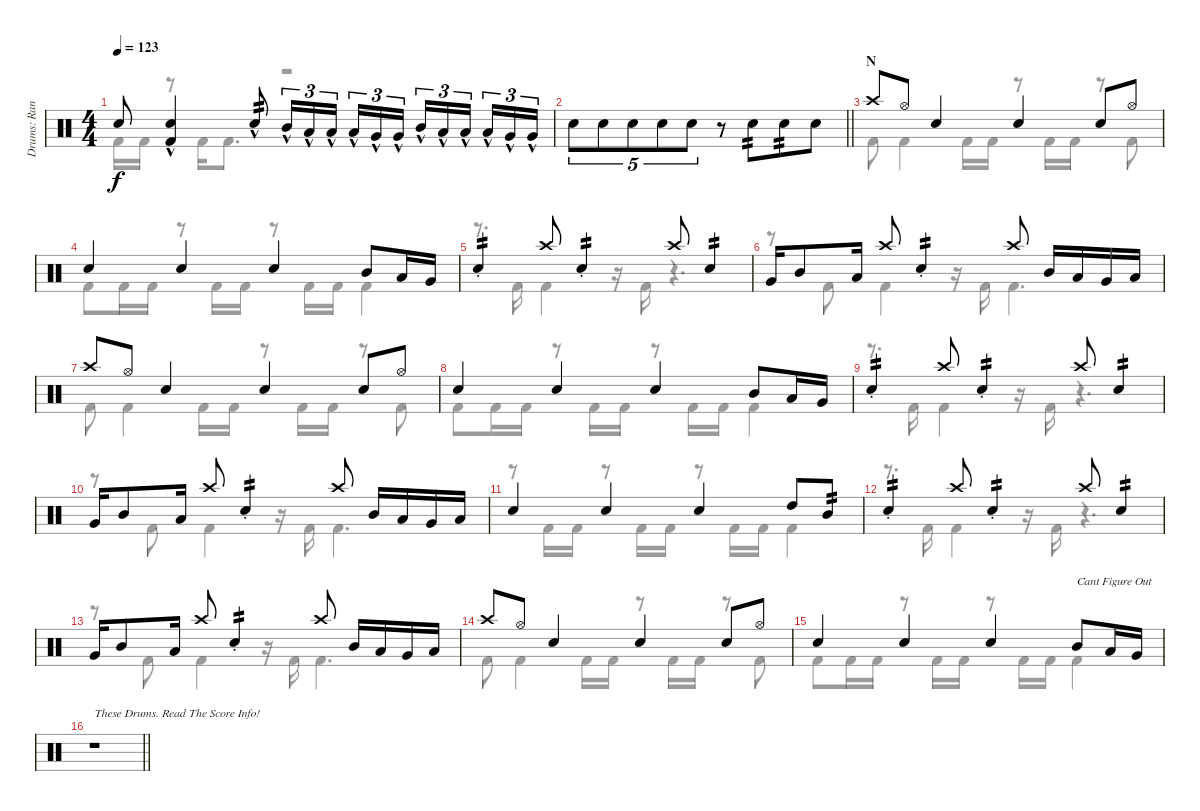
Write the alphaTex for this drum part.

\track ("Drums: Randy" "Drums: Ran") {instrument percussion}
\staff {score}
\articulation defaults
\voice
\ts (4 4)
\tempo 123
\clef neutral
\ks c "Snare (hit)"{t}.8{dy f}
("Snare (hit) 2"{hac} "Kick (hit) 2"{hac}).4 "Snare (hit) 2"{hac}.8{tp 2} "Mid Tom (hit)"{hac}.16{tu (3 2)} "Low Tom (hit)"{hac}.16{tu (3 2)} "Low Tom (hit)"{hac}.16{tu (3 2) beam splitsecondary} "Low Tom (hit)"{hac}.16{tu (3 2)} "Very Low Tom (hit)"{hac}.16{tu (3 2)} "Very Low Tom (hit)"{hac}.16{tu (3 2)} "Mid Tom (hit)"{hac}.16{tu (3 2)} "Low Tom (hit)"{hac}.16{tu (3 2)} "Low Tom (hit)"{hac}.16{tu (3 2) beam splitsecondary} "Low Tom (hit)"{hac}.16{tu (3 2)} "Very Low Tom (hit)"{hac}.16{tu (3 2)} "Very Low Tom (hit)"{hac}.16{tu (3 2)} |
\barLineRight lightlight "Snare (hit) 2".8{tu (5 4)} "Snare (hit) 2".8{tu (5 4)} "Snare (hit) 2".8{tu (5 4) beam merge} "Snare (hit) 2".8{tu (5 4)} "Snare (hit) 2".8{tu (5 4)}
r.8 "Snare (hit) 2".8{tp 2 beam merge} "Snare (hit) 2".8{tp 2} "Snare (hit) 2".8 |
\section ("" "N")
"Crash high (hit)".8 "Hi-Hat (open)".8 "Snare (hit) 2".4 "Snare (hit) 2".4 "Snare (hit) 2".8 "Hi-Hat (open)".8 |
"Snare (hit) 2".4 "Snare (hit) 2".4 "Snare (hit) 2".4 "Mid Tom (hit)".8 "Low Tom (hit)".16 "Very Low Tom (hit)".16 |
"Snare (hit) 2"{st}.4{tp 2} "Crash high (hit)".8 "Snare (hit) 2"{st}.4{tp 2} "Crash high (hit)".8 "Snare (hit) 2".4{tp 2} |
"Very Low Tom (hit)".16 "Mid Tom (hit)".8 "Low Tom (hit)".16 "Crash high (hit)".8 "Snare (hit) 2"{st}.4{tp 2} "Crash high (hit)".8 "Mid Tom (hit)".16 "Low Tom (hit)".16 "Very Low Tom (hit)".16 "Low Floor Tom (hit)".16 |
"Crash high (hit)".8 "Hi-Hat (open)".8 "Snare (hit) 2".4 "Snare (hit) 2".4 "Snare (hit) 2".8 "Hi-Hat (open)".8 |
"Snare (hit) 2".4 "Snare (hit) 2".4 "Snare (hit) 2".4 "Mid Tom (hit)".8 "Low Tom (hit)".16 "Very Low Tom (hit)".16 |
"Snare (hit) 2"{st}.4{tp 2} "Crash high (hit)".8 "Snare (hit) 2"{st}.4{tp 2} "Crash high (hit)".8 "Snare (hit) 2".4{tp 2} |
"Very Low Tom (hit)".16 "Mid Tom (hit)".8 "Low Tom (hit)".16 "Crash high (hit)".8 "Snare (hit) 2"{st}.4{tp 2} "Crash high (hit)".8 "Mid Tom (hit)".16 "Low Tom (hit)".16 "Very Low Tom (hit)".16 "Low Floor Tom (hit)".16 |
"Snare (hit) 2".4 "Snare (hit) 2".4 "Snare (hit) 2".4 "High Tom (hit)".8 "Mid Tom (hit)".8{tp 2} |
"Snare (hit) 2"{st}.4{tp 2} "Crash high (hit)".8 "Snare (hit) 2"{st}.4{tp 2} "Crash high (hit)".8 "Snare (hit) 2".4{tp 2} |
"Very Low Tom (hit)".16 "Mid Tom (hit)".8 "Low Tom (hit)".16 "Crash high (hit)".8 "Snare (hit) 2"{st}.4{tp 2} "Crash high (hit)".8 "Mid Tom (hit)".16 "Low Tom (hit)".16 "Very Low Tom (hit)".16 "Low Floor Tom (hit)".16 |
"Crash high (hit)".8 "Hi-Hat (open)".8 "Snare (hit) 2".4 "Snare (hit) 2".4 "Snare (hit) 2".8 "Hi-Hat (open)".8 |
"Snare (hit) 2".4 "Snare (hit) 2".4 "Snare (hit) 2".4 "Mid Tom (hit)".8{txt "Cant Figure Out"} "Low Tom (hit)".16 "Very Low Tom (hit)".16 |
\barLineRight lightlight
r.1{txt "These Drums. Read The Score Info!"}
\voice
\clef neutral
\ottava regular
\simile none
\ks c "Kick (hit) 2".16{dy f} "Kick (hit) 2".16
r.8 "Kick (hit) 2".16 "Kick (hit) 2".8{d} r.2 |
\barLineRight lightlight
|
"Kick (hit) 2".8 "Kick (hit) 2".4 "Kick (hit) 2".16 "Kick (hit) 2".16 r.8 "Kick (hit) 2".16 "Kick (hit) 2".16 r.8 "Kick (hit) 2".8 |
"Kick (hit) 2".8 "Kick (hit) 2".16 "Kick (hit) 2".16 r.8 "Kick (hit) 2".16 "Kick (hit) 2".16 r.8 "Kick (hit) 2".16 "Kick (hit) 2".16 "Kick (hit) 2".4 |
r.8{d} "Kick (hit) 2".16 "Kick (hit) 2".4 r.16 "Kick (hit) 2".16 r.4{d} |
r.8 "Kick (hit) 2".8 "Kick (hit) 2".4 r.16 "Kick (hit) 2".16 "Kick (hit) 2".4{d} |
"Kick (hit) 2".8 "Kick (hit) 2".4 "Kick (hit) 2".16 "Kick (hit) 2".16 r.8 "Kick (hit) 2".16 "Kick (hit) 2".16 r.8 "Kick (hit) 2".8 |
"Kick (hit) 2".8 "Kick (hit) 2".16 "Kick (hit) 2".16 r.8 "Kick (hit) 2".16 "Kick (hit) 2".16 r.8 "Kick (hit) 2".16 "Kick (hit) 2".16 "Kick (hit) 2".4 |
r.8{d} "Kick (hit) 2".16 "Kick (hit) 2".4 r.16 "Kick (hit) 2".16 r.4{d} |
r.8 "Kick (hit) 2".8 "Kick (hit) 2".4 r.16 "Kick (hit) 2".16 "Kick (hit) 2".4{d} |
r.8 "Kick (hit) 2".16 "Kick (hit) 2".16 r.8 "Kick (hit) 2".16 "Kick (hit) 2".16 r.8 "Kick (hit) 2".16 "Kick (hit) 2".16 "Kick (hit) 2".4 |
r.8{d} "Kick (hit) 2".16 "Kick (hit) 2".4 r.16 "Kick (hit) 2".16 r.4{d} |
r.8 "Kick (hit) 2".8 "Kick (hit) 2".4 r.16 "Kick (hit) 2".16 "Kick (hit) 2".4{d} |
"Kick (hit) 2".8 "Kick (hit) 2".4 "Kick (hit) 2".16 "Kick (hit) 2".16 r.8 "Kick (hit) 2".16 "Kick (hit) 2".16 r.8 "Kick (hit) 2".8 |
"Kick (hit) 2".8 "Kick (hit) 2".16 "Kick (hit) 2".16 r.8 "Kick (hit) 2".16 "Kick (hit) 2".16 r.8 "Kick (hit) 2".16 "Kick (hit) 2".16 "Kick (hit) 2".4 |
\barLineRight lightlight
